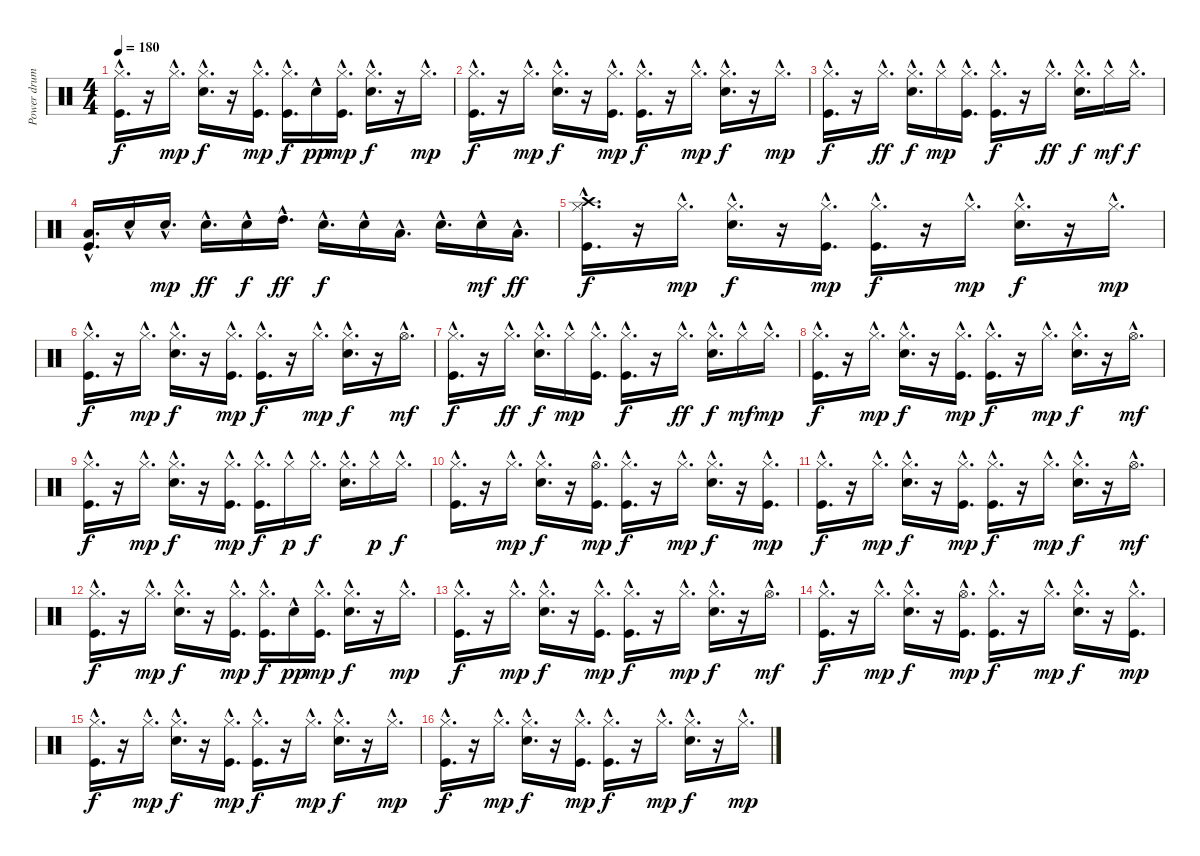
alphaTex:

\track ("Power drum" "Power drum") {instrument percussion}
\staff {score}
\articulation defaults
\ts (4 4)
\tempo 180
\clef neutral
\ks c
("Kick (hit)"{hac} "Hi-Hat (closed)"{hac}).16{d dy f} r.16 "Hi-Hat (closed)"{hac}.16{d dy mp} ("Snare (hit) 2"{hac} "Hi-Hat (closed)"{hac}).16{d dy f} r.16 ("Kick (hit)"{hac} "Hi-Hat (closed)"{hac}).16{d dy mp} ("Kick (hit)"{hac} "Hi-Hat (closed)"{hac}).16{d dy f} "Snare (hit) 2"{hac}.16{dy pp} ("Kick (hit)"{hac} "Hi-Hat (closed)"{hac}).16{d dy mp} ("Snare (hit) 2"{hac} "Hi-Hat (closed)"{hac}).16{d dy f} r.16 "Hi-Hat (closed)"{hac}.16{d dy mp} |
("Kick (hit)"{hac} "Hi-Hat (closed)"{hac}).16{d dy f} r.16 "Hi-Hat (closed)"{hac}.16{d dy mp} ("Snare (hit) 2"{hac} "Hi-Hat (closed)"{hac}).16{d dy f} r.16 ("Kick (hit)"{hac} "Hi-Hat (closed)"{hac}).16{d dy mp} ("Kick (hit)"{hac} "Hi-Hat (closed)"{hac}).16{d dy f} r.16 "Hi-Hat (closed)"{hac}.16{d dy mp} ("Snare (hit) 2"{hac} "Hi-Hat (closed)"{hac}).16{d dy f} r.16 "Hi-Hat (closed)"{hac}.16{d dy mp} |
("Kick (hit)"{hac} "Hi-Hat (closed)"{hac}).16{d dy f} r.16 "Hi-Hat (closed)"{hac}.16{d dy ff} ("Snare (hit) 2"{hac} "Hi-Hat (closed)"{hac}).16{d dy f} "Hi-Hat (closed)"{hac}.16{dy mp} ("Kick (hit)"{hac} "Hi-Hat (closed)"{hac}).16{d} ("Kick (hit)"{hac} "Hi-Hat (closed)"{hac}).16{d dy f} r.16 "Hi-Hat (closed)"{hac}.16{d dy ff} ("Snare (hit) 2"{hac} "Hi-Hat (closed)"{hac}).16{d dy f} "Hi-Hat (closed)"{hac}.16{dy mf} "Hi-Hat (closed)"{hac}.16{d dy f} |
("Kick (hit)"{hac} "Low Tom (hit)"{hac}).16{d} "Snare (hit) 2"{hac}.16 "Snare (hit) 2"{hac}.16{d dy mp} "Snare (hit) 2"{hac}.16{d dy ff} "Snare (hit) 2"{hac}.16{dy f} "High Tom (hit)"{hac}.16{d dy ff} "Snare (hit) 2"{hac}.16{d dy f} "Snare (hit) 2"{hac}.16 "Low Tom (hit)"{hac}.16{d} "Snare (hit) 2"{hac}.16{d} "Snare (hit) 2"{hac}.16{dy mf} "Low Floor Tom (hit)"{hac}.16{d dy ff} |
("Kick (hit)"{hac} "Hi-Hat (closed)"{hac} "Crash high (hit)"{hac}).16{d dy f} r.16 "Hi-Hat (closed)"{hac}.16{d dy mp} ("Snare (hit) 2"{hac} "Hi-Hat (closed)"{hac}).16{d dy f} r.16 ("Kick (hit)"{hac} "Hi-Hat (closed)"{hac}).16{d dy mp} ("Kick (hit)"{hac} "Hi-Hat (closed)"{hac}).16{d dy f} r.16 "Hi-Hat (closed)"{hac}.16{d dy mp} ("Snare (hit) 2"{hac} "Hi-Hat (closed)"{hac}).16{d dy f} r.16 "Hi-Hat (closed)"{hac}.16{d dy mp} |
("Kick (hit)"{hac} "Hi-Hat (closed)"{hac}).16{d dy f} r.16 "Hi-Hat (closed)"{hac}.16{d dy mp} ("Snare (hit) 2"{hac} "Hi-Hat (closed)"{hac}).16{d dy f} r.16 ("Kick (hit)"{hac} "Hi-Hat (closed)"{hac}).16{d dy mp} ("Kick (hit)"{hac} "Hi-Hat (closed)"{hac}).16{d dy f} r.16 "Hi-Hat (closed)"{hac}.16{d dy mp} ("Snare (hit) 2"{hac} "Hi-Hat (closed)"{hac}).16{d dy f} r.16 "Hi-Hat (open)"{hac}.16{d dy mf} |
("Kick (hit)"{hac} "Hi-Hat (closed)"{hac}).16{d dy f} r.16 "Hi-Hat (closed)"{hac}.16{d dy ff} ("Snare (hit) 2"{hac} "Hi-Hat (closed)"{hac}).16{d dy f} "Hi-Hat (closed)"{hac}.16{dy mp} ("Kick (hit)"{hac} "Hi-Hat (closed)"{hac}).16{d} ("Kick (hit)"{hac} "Hi-Hat (closed)"{hac}).16{d dy f} r.16 "Hi-Hat (closed)"{hac}.16{d dy ff} ("Snare (hit) 2"{hac} "Hi-Hat (closed)"{hac}).16{d dy f} "Hi-Hat (closed)"{hac}.16{dy mf} "Hi-Hat (closed)"{hac}.16{d dy mp} |
("Kick (hit)"{hac} "Hi-Hat (closed)"{hac}).16{d dy f} r.16 "Hi-Hat (closed)"{hac}.16{d dy mp} ("Snare (hit) 2"{hac} "Hi-Hat (closed)"{hac}).16{d dy f} r.16 ("Kick (hit)"{hac} "Hi-Hat (closed)"{hac}).16{d dy mp} ("Kick (hit)"{hac} "Hi-Hat (closed)"{hac}).16{d dy f} r.16 "Hi-Hat (closed)"{hac}.16{d dy mp} ("Snare (hit) 2"{hac} "Hi-Hat (closed)"{hac}).16{d dy f} r.16 "Hi-Hat (open)"{hac}.16{d dy mf} |
("Kick (hit)"{hac} "Hi-Hat (closed)"{hac}).16{d dy f} r.16 "Hi-Hat (closed)"{hac}.16{d dy mp} ("Snare (hit) 2"{hac} "Hi-Hat (closed)"{hac}).16{d dy f} r.16 ("Kick (hit)"{hac} "Hi-Hat (closed)"{hac}).16{d dy mp} ("Kick (hit)"{hac} "Hi-Hat (closed)"{hac}).16{d dy f} "Hi-Hat (closed)"{hac}.16{dy p} "Hi-Hat (closed)"{hac}.16{d dy f} ("Snare (hit) 2"{hac} "Hi-Hat (closed)"{hac}).16{d} "Hi-Hat (closed)"{hac}.16{dy p} "Hi-Hat (closed)"{hac}.16{d dy f} |
("Kick (hit)"{hac} "Hi-Hat (closed)"{hac}).16{d} r.16 "Hi-Hat (closed)"{hac}.16{d dy mp} ("Snare (hit) 2"{hac} "Hi-Hat (closed)"{hac}).16{d dy f} r.16 ("Kick (hit)"{hac} "Hi-Hat (open)"{hac}).16{d dy mp} ("Kick (hit)"{hac} "Hi-Hat (closed)"{hac}).16{d dy f} r.16 "Hi-Hat (closed)"{hac}.16{d dy mp} ("Snare (hit) 2"{hac} "Hi-Hat (closed)"{hac}).16{d dy f} r.16 ("Kick (hit)"{hac} "Hi-Hat (closed)"{hac}).16{d dy mp} |
("Kick (hit)"{hac} "Hi-Hat (closed)"{hac}).16{d dy f} r.16 "Hi-Hat (closed)"{hac}.16{d dy mp} ("Snare (hit) 2"{hac} "Hi-Hat (closed)"{hac}).16{d dy f} r.16 ("Kick (hit)"{hac} "Hi-Hat (closed)"{hac}).16{d dy mp} ("Kick (hit)"{hac} "Hi-Hat (closed)"{hac}).16{d dy f} r.16 "Hi-Hat (closed)"{hac}.16{d dy mp} ("Snare (hit) 2"{hac} "Hi-Hat (closed)"{hac}).16{d dy f} r.16 "Hi-Hat (open)"{hac}.16{d dy mf} |
("Kick (hit)"{hac} "Hi-Hat (closed)"{hac}).16{d dy f} r.16 "Hi-Hat (closed)"{hac}.16{d dy mp} ("Snare (hit) 2"{hac} "Hi-Hat (closed)"{hac}).16{d dy f} r.16 ("Kick (hit)"{hac} "Hi-Hat (closed)"{hac}).16{d dy mp} ("Kick (hit)"{hac} "Hi-Hat (closed)"{hac}).16{d dy f} "Snare (hit) 2"{hac}.16{dy pp} ("Kick (hit)"{hac} "Hi-Hat (closed)"{hac}).16{d dy mp} ("Snare (hit) 2"{hac} "Hi-Hat (closed)"{hac}).16{d dy f} r.16 "Hi-Hat (closed)"{hac}.16{d dy mp} |
("Kick (hit)"{hac} "Hi-Hat (closed)"{hac}).16{d dy f} r.16 "Hi-Hat (closed)"{hac}.16{d dy mp} ("Snare (hit) 2"{hac} "Hi-Hat (closed)"{hac}).16{d dy f} r.16 ("Kick (hit)"{hac} "Hi-Hat (closed)"{hac}).16{d dy mp} ("Kick (hit)"{hac} "Hi-Hat (closed)"{hac}).16{d dy f} r.16 "Hi-Hat (closed)"{hac}.16{d dy mp} ("Snare (hit) 2"{hac} "Hi-Hat (closed)"{hac}).16{d dy f} r.16 "Hi-Hat (open)"{hac}.16{d dy mf} |
("Kick (hit)"{hac} "Hi-Hat (closed)"{hac}).16{d dy f} r.16 "Hi-Hat (closed)"{hac}.16{d dy mp} ("Snare (hit) 2"{hac} "Hi-Hat (closed)"{hac}).16{d dy f} r.16 ("Kick (hit)"{hac} "Hi-Hat (open)"{hac}).16{d dy mp} ("Kick (hit)"{hac} "Hi-Hat (closed)"{hac}).16{d dy f} r.16 "Hi-Hat (closed)"{hac}.16{d dy mp} ("Snare (hit) 2"{hac} "Hi-Hat (closed)"{hac}).16{d dy f} r.16 ("Kick (hit)"{hac} "Hi-Hat (closed)"{hac}).16{d dy mp} |
("Kick (hit)"{hac} "Hi-Hat (closed)"{hac}).16{d dy f} r.16 "Hi-Hat (closed)"{hac}.16{d dy mp} ("Snare (hit) 2"{hac} "Hi-Hat (closed)"{hac}).16{d dy f} r.16 ("Kick (hit)"{hac} "Hi-Hat (closed)"{hac}).16{d dy mp} ("Kick (hit)"{hac} "Hi-Hat (closed)"{hac}).16{d dy f} r.16 "Hi-Hat (closed)"{hac}.16{d dy mp} ("Snare (hit) 2"{hac} "Hi-Hat (closed)"{hac}).16{d dy f} r.16 "Hi-Hat (closed)"{hac}.16{d dy mp} |
("Kick (hit)"{hac} "Hi-Hat (closed)"{hac}).16{d dy f} r.16 "Hi-Hat (closed)"{hac}.16{d dy mp} ("Snare (hit) 2"{hac} "Hi-Hat (closed)"{hac}).16{d dy f} r.16 ("Kick (hit)"{hac} "Hi-Hat (closed)"{hac}).16{d dy mp} ("Kick (hit)"{hac} "Hi-Hat (closed)"{hac}).16{d dy f} r.16 "Hi-Hat (closed)"{hac}.16{d dy mp} ("Snare (hit) 2"{hac} "Hi-Hat (closed)"{hac}).16{d dy f} r.16 "Hi-Hat (closed)"{hac}.16{d dy mp}
